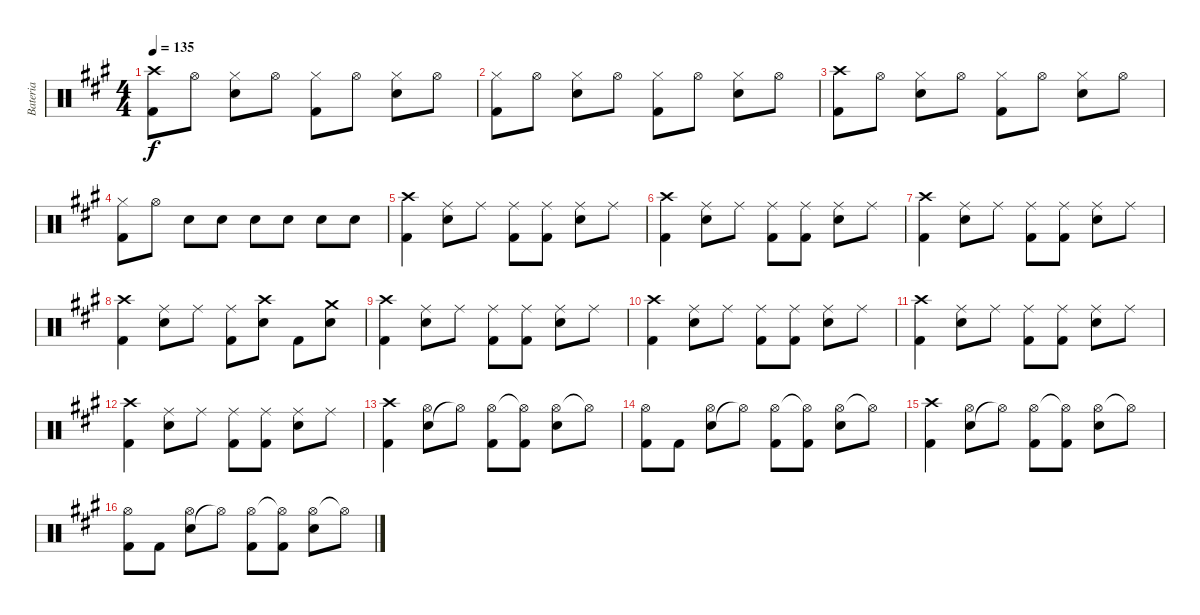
\track ("Bateria" "Bateria") {instrument percussion}
\staff {score}
\articulation defaults
\ts (4 4)
\tempo 135
\clef neutral
\ks a
("Kick (hit) 2" "Crash high (hit)").8{dy f} "Hi-Hat (open)".8 ("Electric Snare (hit)" "Hi-Hat (closed)").8 "Hi-Hat (open)".8 ("Kick (hit) 2" "Hi-Hat (closed)").8 "Hi-Hat (open)".8 ("Electric Snare (hit)" "Hi-Hat (closed)").8 "Hi-Hat (open)".8 |
("Kick (hit) 2" "Hi-Hat (closed)").8 "Hi-Hat (open)".8 ("Electric Snare (hit)" "Hi-Hat (closed)").8 "Hi-Hat (open)".8 ("Kick (hit) 2" "Hi-Hat (closed)").8 "Hi-Hat (open)".8 ("Electric Snare (hit)" "Hi-Hat (closed)").8 "Hi-Hat (open)".8 |
("Kick (hit) 2" "Crash high (hit)").8 "Hi-Hat (open)".8 ("Electric Snare (hit)" "Hi-Hat (closed)").8 "Hi-Hat (open)".8 ("Kick (hit) 2" "Hi-Hat (closed)").8 "Hi-Hat (open)".8 ("Electric Snare (hit)" "Hi-Hat (closed)").8 "Hi-Hat (open)".8 |
("Kick (hit) 2" "Hi-Hat (closed)").8 "Hi-Hat (open)".8 "Electric Snare (hit)".8 "Electric Snare (hit)".8 "Electric Snare (hit)".8 "Electric Snare (hit)".8 "Electric Snare (hit)".8 "Electric Snare (hit)".8 |
("Kick (hit) 2" "Crash high (hit)").4 ("Electric Snare (hit)" "Ride (middle)").8 "Ride (middle)".8 ("Ride (middle)" "Kick (hit) 2").8 ("Ride (middle)" "Kick (hit) 2").8 ("Ride (middle)" "Electric Snare (hit)").8 "Ride (middle)".8 |
("Kick (hit) 2" "Crash high (hit)").4 ("Electric Snare (hit)" "Ride (middle)").8 "Ride (middle)".8 ("Ride (middle)" "Kick (hit) 2").8 ("Ride (middle)" "Kick (hit) 2").8 ("Ride (middle)" "Electric Snare (hit)").8 "Ride (middle)".8 |
("Kick (hit) 2" "Crash high (hit)").4 ("Electric Snare (hit)" "Ride (middle)").8 "Ride (middle)".8 ("Ride (middle)" "Kick (hit) 2").8 ("Ride (middle)" "Kick (hit) 2").8 ("Ride (middle)" "Electric Snare (hit)").8 "Ride (middle)".8 |
("Kick (hit) 2" "Crash high (hit)").4 ("Electric Snare (hit)" "Ride (middle)").8 "Ride (middle)".8 ("Ride (middle)" "Kick (hit) 2").8 ("Electric Snare (hit)" "Crash high (hit)").8 "Kick (hit) 2".8 ("Electric Snare (hit)" "Crash medium (hit)").8 |
("Kick (hit) 2" "Crash high (hit)").4 ("Electric Snare (hit)" "Ride (middle)").8 "Ride (middle)".8 ("Ride (middle)" "Kick (hit) 2").8 ("Ride (middle)" "Kick (hit) 2").8 ("Ride (middle)" "Electric Snare (hit)").8 "Ride (middle)".8 |
("Kick (hit) 2" "Crash high (hit)").4 ("Electric Snare (hit)" "Ride (middle)").8 "Ride (middle)".8 ("Ride (middle)" "Kick (hit) 2").8 ("Ride (middle)" "Kick (hit) 2").8 ("Ride (middle)" "Electric Snare (hit)").8 "Ride (middle)".8 |
("Kick (hit) 2" "Crash high (hit)").4 ("Electric Snare (hit)" "Ride (middle)").8 "Ride (middle)".8 ("Ride (middle)" "Kick (hit) 2").8 ("Ride (middle)" "Kick (hit) 2").8 ("Ride (middle)" "Electric Snare (hit)").8 "Ride (middle)".8 |
("Kick (hit) 2" "Crash high (hit)").4 ("Electric Snare (hit)" "Ride (middle)").8 "Ride (middle)".8 ("Ride (middle)" "Kick (hit) 2").8 ("Ride (middle)" "Kick (hit) 2").8 ("Ride (middle)" "Electric Snare (hit)").8 "Ride (middle)".8 |
("Kick (hit) 2" "Crash high (hit)").4 ("Electric Snare (hit)" "Hi-Hat (open)").8 "Hi-Hat (open)"{t}.8 ("Hi-Hat (open)" "Kick (hit) 2").8 ("Hi-Hat (open)"{t} "Kick (hit) 2").8 ("Hi-Hat (open)" "Electric Snare (hit)").8 "Hi-Hat (open)"{t}.8 |
("Hi-Hat (open)" "Kick (hit) 2").8 "Kick (hit) 2".8 ("Electric Snare (hit)" "Hi-Hat (open)").8 "Hi-Hat (open)"{t}.8 ("Hi-Hat (open)" "Kick (hit) 2").8 ("Hi-Hat (open)"{t} "Kick (hit) 2").8 ("Hi-Hat (open)" "Electric Snare (hit)").8 "Hi-Hat (open)"{t}.8 |
("Kick (hit) 2" "Crash high (hit)").4 ("Electric Snare (hit)" "Hi-Hat (open)").8 "Hi-Hat (open)"{t}.8 ("Hi-Hat (open)" "Kick (hit) 2").8 ("Hi-Hat (open)"{t} "Kick (hit) 2").8 ("Hi-Hat (open)" "Electric Snare (hit)").8 "Hi-Hat (open)"{t}.8 |
("Hi-Hat (open)" "Kick (hit) 2").8 "Kick (hit) 2".8 ("Electric Snare (hit)" "Hi-Hat (open)").8 "Hi-Hat (open)"{t}.8 ("Hi-Hat (open)" "Kick (hit) 2").8 ("Hi-Hat (open)"{t} "Kick (hit) 2").8 ("Hi-Hat (open)" "Electric Snare (hit)").8 "Hi-Hat (open)"{t}.8
